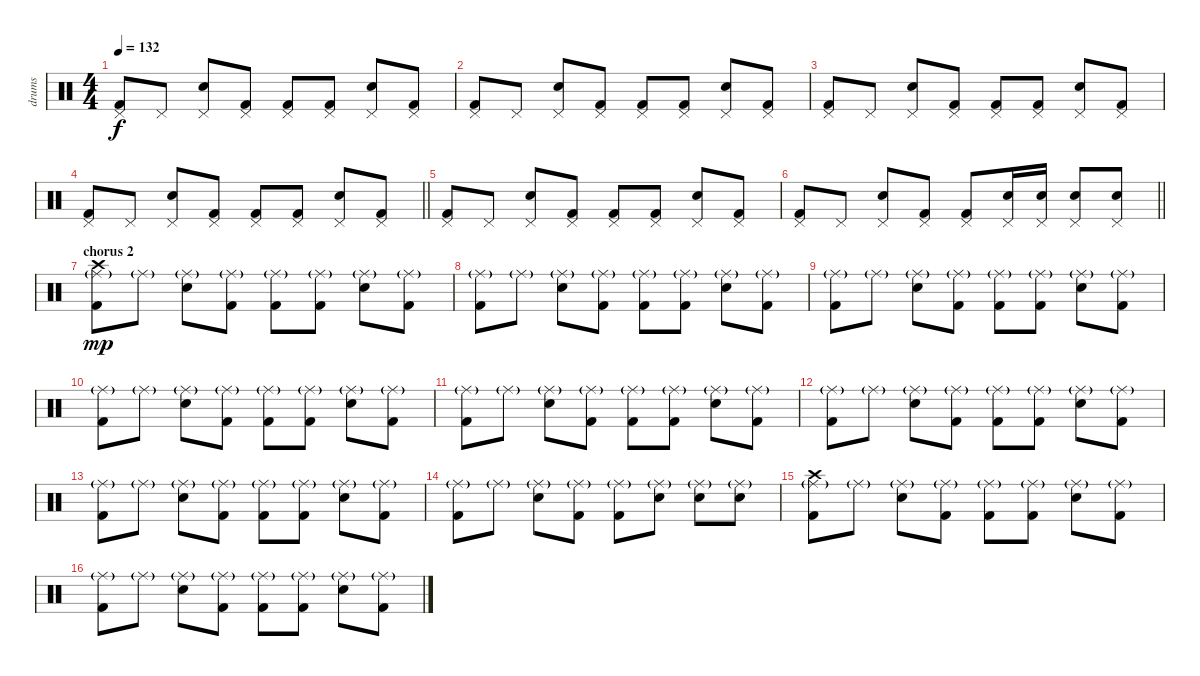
\track ("drums" "drums") {instrument percussion}
\staff {score}
\articulation defaults
\ts (4 4)
\tempo 132
\clef neutral
\ks c
("Kick (hit) 2" "Pedal Hi-Hat (hit)").8{dy f} "Pedal Hi-Hat (hit)".8 ("Electric Snare (hit)" "Pedal Hi-Hat (hit)").8 ("Kick (hit) 2" "Pedal Hi-Hat (hit)").8 ("Kick (hit) 2" "Pedal Hi-Hat (hit)").8 ("Kick (hit) 2" "Pedal Hi-Hat (hit)").8 ("Electric Snare (hit)" "Pedal Hi-Hat (hit)").8 ("Kick (hit) 2" "Pedal Hi-Hat (hit)").8 |
("Kick (hit) 2" "Pedal Hi-Hat (hit)").8 "Pedal Hi-Hat (hit)".8 ("Electric Snare (hit)" "Pedal Hi-Hat (hit)").8 ("Kick (hit) 2" "Pedal Hi-Hat (hit)").8 ("Kick (hit) 2" "Pedal Hi-Hat (hit)").8 ("Kick (hit) 2" "Pedal Hi-Hat (hit)").8 ("Electric Snare (hit)" "Pedal Hi-Hat (hit)").8 ("Kick (hit) 2" "Pedal Hi-Hat (hit)").8 |
("Kick (hit) 2" "Pedal Hi-Hat (hit)").8 "Pedal Hi-Hat (hit)".8 ("Electric Snare (hit)" "Pedal Hi-Hat (hit)").8 ("Kick (hit) 2" "Pedal Hi-Hat (hit)").8 ("Kick (hit) 2" "Pedal Hi-Hat (hit)").8 ("Kick (hit) 2" "Pedal Hi-Hat (hit)").8 ("Electric Snare (hit)" "Pedal Hi-Hat (hit)").8 ("Kick (hit) 2" "Pedal Hi-Hat (hit)").8 |
\barLineRight lightlight
("Kick (hit) 2" "Pedal Hi-Hat (hit)").8 "Pedal Hi-Hat (hit)".8 ("Electric Snare (hit)" "Pedal Hi-Hat (hit)").8 ("Kick (hit) 2" "Pedal Hi-Hat (hit)").8 ("Kick (hit) 2" "Pedal Hi-Hat (hit)").8 ("Kick (hit) 2" "Pedal Hi-Hat (hit)").8 ("Electric Snare (hit)" "Pedal Hi-Hat (hit)").8 ("Kick (hit) 2" "Pedal Hi-Hat (hit)").8 |
("Kick (hit) 2" "Pedal Hi-Hat (hit)").8 "Pedal Hi-Hat (hit)".8 ("Electric Snare (hit)" "Pedal Hi-Hat (hit)").8 ("Kick (hit) 2" "Pedal Hi-Hat (hit)").8 ("Kick (hit) 2" "Pedal Hi-Hat (hit)").8 ("Kick (hit) 2" "Pedal Hi-Hat (hit)").8 ("Electric Snare (hit)" "Pedal Hi-Hat (hit)").8 ("Kick (hit) 2" "Pedal Hi-Hat (hit)").8 |
\barLineRight lightlight
("Kick (hit) 2" "Pedal Hi-Hat (hit)").8 "Pedal Hi-Hat (hit)".8 ("Electric Snare (hit)" "Pedal Hi-Hat (hit)").8 ("Kick (hit) 2" "Pedal Hi-Hat (hit)").8 ("Kick (hit) 2" "Pedal Hi-Hat (hit)").8 ("Electric Snare (hit)" "Pedal Hi-Hat (hit)").16 ("Electric Snare (hit)" "Pedal Hi-Hat (hit)").16 ("Electric Snare (hit)" "Pedal Hi-Hat (hit)").8 ("Electric Snare (hit)" "Pedal Hi-Hat (hit)").8 |
\section ("" "chorus 2")
("Kick (hit) 2" "Ride (middle)"{g} "Crash high (hit)").8{dy mp} "Ride (middle)"{g}.8 ("Electric Snare (hit)" "Ride (middle)"{g}).8 ("Kick (hit) 2" "Ride (middle)"{g}).8 ("Kick (hit) 2" "Ride (middle)"{g}).8 ("Kick (hit) 2" "Ride (middle)"{g}).8 ("Electric Snare (hit)" "Ride (middle)"{g}).8 ("Kick (hit) 2" "Ride (middle)"{g}).8 |
("Kick (hit) 2" "Ride (middle)"{g}).8 "Ride (middle)"{g}.8 ("Electric Snare (hit)" "Ride (middle)"{g}).8 ("Kick (hit) 2" "Ride (middle)"{g}).8 ("Kick (hit) 2" "Ride (middle)"{g}).8 ("Kick (hit) 2" "Ride (middle)"{g}).8 ("Electric Snare (hit)" "Ride (middle)"{g}).8 ("Kick (hit) 2" "Ride (middle)"{g}).8 |
("Kick (hit) 2" "Ride (middle)"{g}).8 "Ride (middle)"{g}.8 ("Electric Snare (hit)" "Ride (middle)"{g}).8 ("Kick (hit) 2" "Ride (middle)"{g}).8 ("Kick (hit) 2" "Ride (middle)"{g}).8 ("Kick (hit) 2" "Ride (middle)"{g}).8 ("Electric Snare (hit)" "Ride (middle)"{g}).8 ("Kick (hit) 2" "Ride (middle)"{g}).8 |
("Kick (hit) 2" "Ride (middle)"{g}).8 "Ride (middle)"{g}.8 ("Electric Snare (hit)" "Ride (middle)"{g}).8 ("Kick (hit) 2" "Ride (middle)"{g}).8 ("Kick (hit) 2" "Ride (middle)"{g}).8 ("Kick (hit) 2" "Ride (middle)"{g}).8 ("Electric Snare (hit)" "Ride (middle)"{g}).8 ("Kick (hit) 2" "Ride (middle)"{g}).8 |
("Kick (hit) 2" "Ride (middle)"{g}).8 "Ride (middle)"{g}.8 ("Electric Snare (hit)" "Ride (middle)"{g}).8 ("Kick (hit) 2" "Ride (middle)"{g}).8 ("Kick (hit) 2" "Ride (middle)"{g}).8 ("Kick (hit) 2" "Ride (middle)"{g}).8 ("Electric Snare (hit)" "Ride (middle)"{g}).8 ("Kick (hit) 2" "Ride (middle)"{g}).8 |
("Kick (hit) 2" "Ride (middle)"{g}).8 "Ride (middle)"{g}.8 ("Electric Snare (hit)" "Ride (middle)"{g}).8 ("Kick (hit) 2" "Ride (middle)"{g}).8 ("Kick (hit) 2" "Ride (middle)"{g}).8 ("Kick (hit) 2" "Ride (middle)"{g}).8 ("Electric Snare (hit)" "Ride (middle)"{g}).8 ("Kick (hit) 2" "Ride (middle)"{g}).8 |
("Kick (hit) 2" "Ride (middle)"{g}).8 "Ride (middle)"{g}.8 ("Electric Snare (hit)" "Ride (middle)"{g}).8 ("Kick (hit) 2" "Ride (middle)"{g}).8 ("Kick (hit) 2" "Ride (middle)"{g}).8 ("Kick (hit) 2" "Ride (middle)"{g}).8 ("Electric Snare (hit)" "Ride (middle)"{g}).8 ("Kick (hit) 2" "Ride (middle)"{g}).8 |
("Kick (hit) 2" "Ride (middle)"{g}).8 "Ride (middle)"{g}.8 ("Electric Snare (hit)" "Ride (middle)"{g}).8 ("Kick (hit) 2" "Ride (middle)"{g}).8 ("Kick (hit) 2" "Ride (middle)"{g}).8 ("Electric Snare (hit)" "Ride (middle)"{g}).8 ("Electric Snare (hit)" "Ride (middle)"{g}).8 ("Electric Snare (hit)" "Ride (middle)"{g}).8 |
("Kick (hit) 2" "Ride (middle)"{g} "Crash high (hit)").8 "Ride (middle)"{g}.8 ("Electric Snare (hit)" "Ride (middle)"{g}).8 ("Kick (hit) 2" "Ride (middle)"{g}).8 ("Kick (hit) 2" "Ride (middle)"{g}).8 ("Kick (hit) 2" "Ride (middle)"{g}).8 ("Electric Snare (hit)" "Ride (middle)"{g}).8 ("Kick (hit) 2" "Ride (middle)"{g}).8 |
("Kick (hit) 2" "Ride (middle)"{g}).8 "Ride (middle)"{g}.8 ("Electric Snare (hit)" "Ride (middle)"{g}).8 ("Kick (hit) 2" "Ride (middle)"{g}).8 ("Kick (hit) 2" "Ride (middle)"{g}).8 ("Kick (hit) 2" "Ride (middle)"{g}).8 ("Electric Snare (hit)" "Ride (middle)"{g}).8 ("Kick (hit) 2" "Ride (middle)"{g}).8
